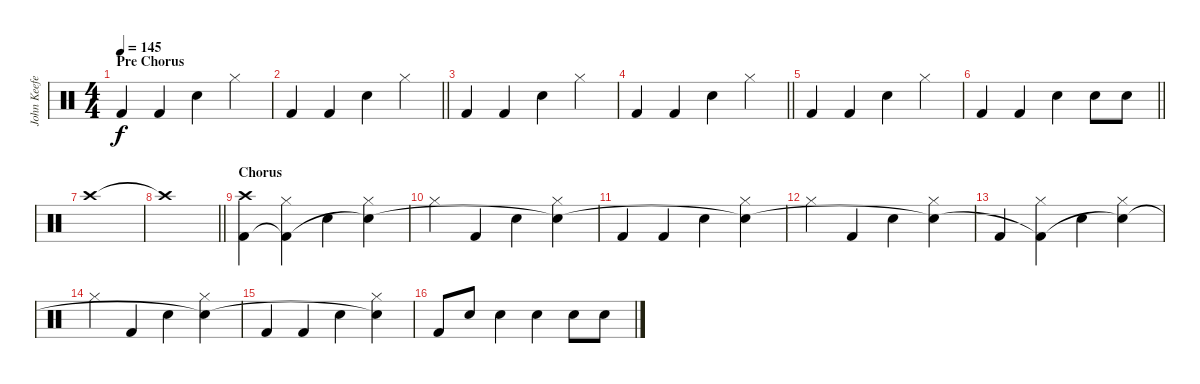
\track ("John Keefe (Percussion)" "John Keefe") {instrument percussion}
\staff {score}
\articulation defaults
\ts (4 4)
\section ("" "Pre Chorus")
\tempo 145
\clef neutral
\ks c "Kick (hit) 2".4{dy f} "Kick (hit) 2".4 "Snare (hit) 2".4 "Hi-Hat (closed)".4
|
\barLineRight lightlight "Kick (hit) 2".4 "Kick (hit) 2".4 "Snare (hit) 2".4 "Hi-Hat (closed)".4
|
"Kick (hit) 2".4 "Kick (hit) 2".4 "Snare (hit) 2".4 "Hi-Hat (closed)".4 |
\barLineRight lightlight "Kick (hit) 2".4 "Kick (hit) 2".4 "Snare (hit) 2".4 "Hi-Hat (closed)".4
|
"Kick (hit) 2".4 "Kick (hit) 2".4 "Snare (hit) 2".4 "Hi-Hat (closed)".4 |
\barLineRight lightlight "Kick (hit) 2".4 "Kick (hit) 2".4 "Snare (hit) 2".4 "Snare (hit) 2".8 "Snare (hit) 2".8
|
"Crash high (hit)".1 |
\barLineRight lightlight "Crash high (hit)"{t}.1
|
\section ("" "Chorus")
("Crash high (hit)" "Kick (hit) 2").4 ("Hi-Hat (closed)" "Kick (hit) 2"{t}).4 "Snare (hit) 2".4 ("Hi-Hat (closed)" "Snare (hit) 2"{t}).4 |
"Hi-Hat (closed)".4 "Kick (hit) 2".4 "Snare (hit) 2".4 ("Hi-Hat (closed)" "Snare (hit) 2"{t}).4 |
"Kick (hit) 2".4 "Kick (hit) 2".4 "Snare (hit) 2".4 ("Hi-Hat (closed)" "Snare (hit) 2"{t}).4 |
"Hi-Hat (closed)".4 "Kick (hit) 2".4 "Snare (hit) 2".4 ("Hi-Hat (closed)" "Snare (hit) 2"{t}).4 |
"Kick (hit) 2".4 ("Hi-Hat (closed)" "Kick (hit) 2"{t}).4 "Snare (hit) 2".4 ("Hi-Hat (closed)" "Snare (hit) 2"{t}).4 |
"Hi-Hat (closed)".4 "Kick (hit) 2".4 "Snare (hit) 2".4 ("Hi-Hat (closed)" "Snare (hit) 2"{t}).4 |
"Kick (hit) 2".4 "Kick (hit) 2".4 "Snare (hit) 2".4 ("Hi-Hat (closed)" "Snare (hit) 2"{t}).4 |
"Kick (hit) 2".8 "Snare (hit) 2".8 "Snare (hit) 2".4 "Snare (hit) 2".4 "Snare (hit) 2".8 "Snare (hit) 2".8
